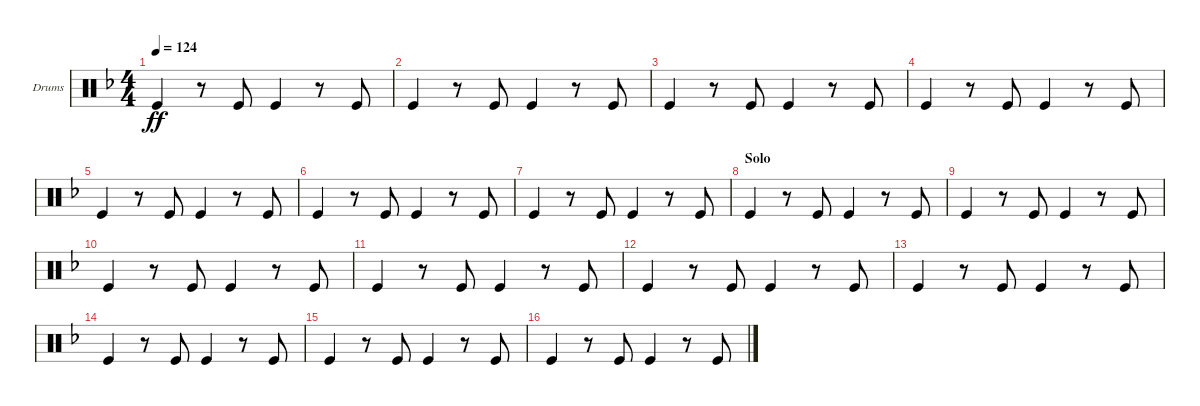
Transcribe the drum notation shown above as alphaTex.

\bracketExtendMode groupsimilarinstruments
\firstSystemTrackNameOrientation horizontal
\otherSystemsTrackNameOrientation horizontal
\track ("Kick Drum" "Drums") {instrument percussion}
\staff {score}
\articulation defaults
\ts (4 4)
\tempo 124
\clef neutral
\scale
0.333333
\ks dminor "Kick (hit)".4{dy ff}
r.8 "Kick (hit)".8 "Kick (hit)".4 r.8 "Kick (hit)".8 |
\scale
0.333333 "Kick (hit)".4 r.8 "Kick (hit)".8 "Kick (hit)".4 r.8 "Kick (hit)".8 |
\scale
0.333333 "Kick (hit)".4 r.8 "Kick (hit)".8 "Kick (hit)".4 r.8 "Kick (hit)".8 |
\scale
0.333333 "Kick (hit)".4 r.8 "Kick (hit)".8 "Kick (hit)".4 r.8 "Kick (hit)".8 |
\scale
0.333333 "Kick (hit)".4 r.8 "Kick (hit)".8 "Kick (hit)".4 r.8 "Kick (hit)".8 |
\scale
0.333333 "Kick (hit)".4 r.8 "Kick (hit)".8 "Kick (hit)".4 r.8 "Kick (hit)".8 |
\scale
0.333333 "Kick (hit)".4 r.8 "Kick (hit)".8 "Kick (hit)".4 r.8 "Kick (hit)".8 |
\section ("" "Solo")
\scale
0.333333 "Kick (hit)".4 r.8 "Kick (hit)".8 "Kick (hit)".4 r.8 "Kick (hit)".8 |
\scale
0.333333 "Kick (hit)".4 r.8 "Kick (hit)".8 "Kick (hit)".4 r.8 "Kick (hit)".8 |
\scale
0.333333 "Kick (hit)".4 r.8 "Kick (hit)".8 "Kick (hit)".4 r.8 "Kick (hit)".8 |
\scale
0.333333 "Kick (hit)".4 r.8 "Kick (hit)".8 "Kick (hit)".4 r.8 "Kick (hit)".8 |
\scale
0.333333 "Kick (hit)".4 r.8 "Kick (hit)".8 "Kick (hit)".4 r.8 "Kick (hit)".8 |
\scale
0.333333 "Kick (hit)".4 r.8 "Kick (hit)".8 "Kick (hit)".4 r.8 "Kick (hit)".8 |
\scale
0.333333 "Kick (hit)".4 r.8 "Kick (hit)".8 "Kick (hit)".4 r.8 "Kick (hit)".8 |
\scale
0.333333 "Kick (hit)".4 r.8 "Kick (hit)".8 "Kick (hit)".4 r.8 "Kick (hit)".8 |
\scale
0.333333 "Kick (hit)".4 r.8 "Kick (hit)".8 "Kick (hit)".4 r.8 "Kick (hit)".8
